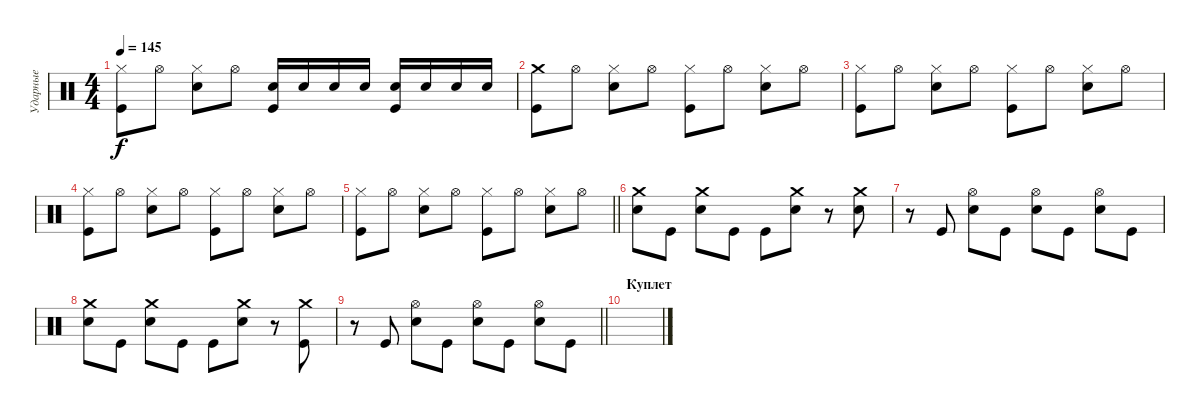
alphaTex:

\track ("Ударные" "Ударные") {instrument percussion}
\staff {score}
\articulation defaults
\ts (4 4)
\tempo 145
\clef neutral
\ks c
("Hi-Hat (closed)" "Kick (hit)").8{dy f} "Hi-Hat (open)".8 ("Hi-Hat (closed)" "Electric Snare (hit)").8 "Hi-Hat (open)".8 ("Electric Snare (hit)" "Kick (hit)").16 "Electric Snare (hit)".16 "Electric Snare (hit)".16 "Electric Snare (hit)".16 ("Electric Snare (hit)" "Kick (hit)").16 "Electric Snare (hit)".16 "Electric Snare (hit)".16 "Electric Snare (hit)".16 |
("Crash medium (hit)" "Kick (hit)").8 "Hi-Hat (open)".8 ("Hi-Hat (closed)" "Electric Snare (hit)").8 "Hi-Hat (open)".8 ("Hi-Hat (closed)" "Kick (hit)").8 "Hi-Hat (open)".8 ("Hi-Hat (closed)" "Electric Snare (hit)").8 "Hi-Hat (open)".8 |
("Hi-Hat (closed)" "Kick (hit)").8 "Hi-Hat (open)".8 ("Hi-Hat (closed)" "Electric Snare (hit)").8 "Hi-Hat (open)".8 ("Hi-Hat (closed)" "Kick (hit)").8 "Hi-Hat (open)".8 ("Hi-Hat (closed)" "Electric Snare (hit)").8 "Hi-Hat (open)".8 |
("Hi-Hat (closed)" "Kick (hit)").8 "Hi-Hat (open)".8 ("Hi-Hat (closed)" "Electric Snare (hit)").8 "Hi-Hat (open)".8 ("Hi-Hat (closed)" "Kick (hit)").8 "Hi-Hat (open)".8 ("Hi-Hat (closed)" "Electric Snare (hit)").8 "Hi-Hat (open)".8 |
\barLineRight lightlight
("Hi-Hat (closed)" "Kick (hit)").8 "Hi-Hat (open)".8 ("Hi-Hat (closed)" "Electric Snare (hit)").8 "Hi-Hat (open)".8 ("Hi-Hat (closed)" "Kick (hit)").8 "Hi-Hat (open)".8 ("Hi-Hat (closed)" "Electric Snare (hit)").8 "Hi-Hat (open)".8 |
\section ("" " ")
("Crash medium (hit)" "Electric Snare (hit)").8 "Kick (hit)".8 ("Crash medium (hit)" "Electric Snare (hit)").8 "Kick (hit)".8 "Kick (hit)".8 ("Crash medium (hit)" "Electric Snare (hit)").8 r.8 ("Crash medium (hit)" "Electric Snare (hit)").8 |
r.8 "Kick (hit)".8 ("Hi-Hat (open)" "Electric Snare (hit)").8 "Kick (hit)".8 ("Hi-Hat (open)" "Electric Snare (hit)").8 "Kick (hit)".8 ("Hi-Hat (open)" "Electric Snare (hit)").8 "Kick (hit)".8 |
("Crash medium (hit)" "Electric Snare (hit)").8 "Kick (hit)".8 ("Crash medium (hit)" "Electric Snare (hit)").8 "Kick (hit)".8 "Kick (hit)".8 ("Crash medium (hit)" "Electric Snare (hit)").8 r.8 ("Crash medium (hit)" "Kick (hit)").8 |
\barLineRight lightlight
r.8 "Kick (hit)".8 ("Hi-Hat (open)" "Electric Snare (hit)").8 "Kick (hit)".8 ("Hi-Hat (open)" "Electric Snare (hit)").8 "Kick (hit)".8 ("Hi-Hat (open)" "Electric Snare (hit)").8 "Kick (hit)".8 |
\section ("" "Куплет")
